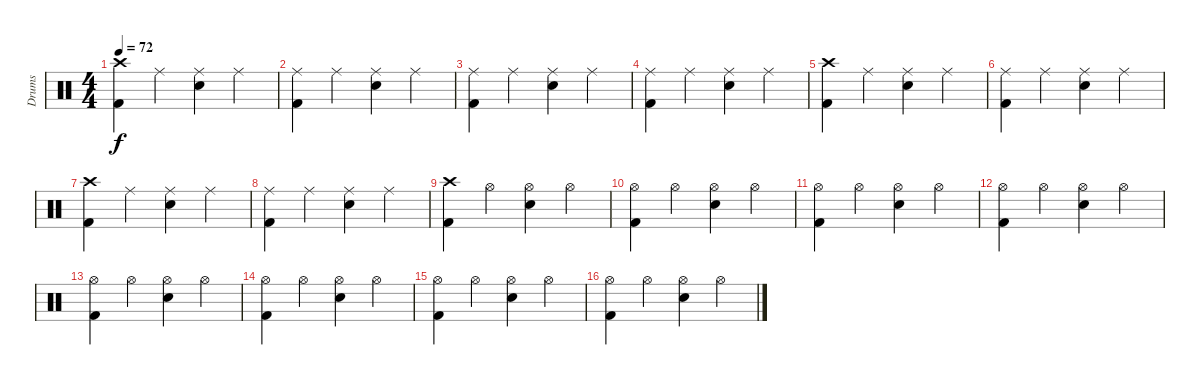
\track ("Drums" "Drums") {instrument percussion}
\staff {score}
\articulation defaults
\ts (4 4)
\tempo 72
\clef neutral
\ks c
("Crash high (hit)" "Kick (hit) 2").4{dy f} "Ride (middle)".4 ("Ride (middle)" "Snare (hit) 2").4 "Ride (middle)".4 |
("Ride (middle)" "Kick (hit) 2").4 "Ride (middle)".4 ("Ride (middle)" "Snare (hit) 2").4 "Ride (middle)".4 |
("Ride (middle)" "Kick (hit) 2").4 "Ride (middle)".4 ("Ride (middle)" "Snare (hit) 2").4 "Ride (middle)".4 |
("Ride (middle)" "Kick (hit) 2").4 "Ride (middle)".4 ("Ride (middle)" "Snare (hit) 2").4 "Ride (middle)".4 |
("Crash high (hit)" "Kick (hit) 2").4 "Ride (middle)".4 ("Ride (middle)" "Snare (hit) 2").4 "Ride (middle)".4 |
("Ride (middle)" "Kick (hit) 2").4 "Ride (middle)".4 ("Ride (middle)" "Snare (hit) 2").4 "Ride (middle)".4 |
("Crash high (hit)" "Kick (hit) 2").4 "Ride (middle)".4 ("Ride (middle)" "Snare (hit) 2").4 "Ride (middle)".4 |
("Ride (middle)" "Kick (hit) 2").4 "Ride (middle)".4 ("Ride (middle)" "Snare (hit) 2").4 "Ride (middle)".4 |
("Crash high (hit)" "Kick (hit) 2").4 "Hi-Hat (open)".4 ("Hi-Hat (open)" "Snare (hit) 2").4 "Hi-Hat (open)".4 |
("Hi-Hat (open)" "Kick (hit) 2").4 "Hi-Hat (open)".4 ("Hi-Hat (open)" "Snare (hit) 2").4 "Hi-Hat (open)".4 |
("Hi-Hat (open)" "Kick (hit) 2").4 "Hi-Hat (open)".4 ("Hi-Hat (open)" "Snare (hit) 2").4 "Hi-Hat (open)".4 |
("Hi-Hat (open)" "Kick (hit) 2").4 "Hi-Hat (open)".4 ("Hi-Hat (open)" "Snare (hit) 2").4 "Hi-Hat (open)".4 |
("Hi-Hat (open)" "Kick (hit) 2").4 "Hi-Hat (open)".4 ("Hi-Hat (open)" "Snare (hit) 2").4 "Hi-Hat (open)".4 |
("Hi-Hat (open)" "Kick (hit) 2").4 "Hi-Hat (open)".4 ("Hi-Hat (open)" "Snare (hit) 2").4 "Hi-Hat (open)".4 |
("Hi-Hat (open)" "Kick (hit) 2").4 "Hi-Hat (open)".4 ("Hi-Hat (open)" "Snare (hit) 2").4 "Hi-Hat (open)".4 |
("Hi-Hat (open)" "Kick (hit) 2").4 "Hi-Hat (open)".4 ("Hi-Hat (open)" "Snare (hit) 2").4 "Hi-Hat (open)".4
